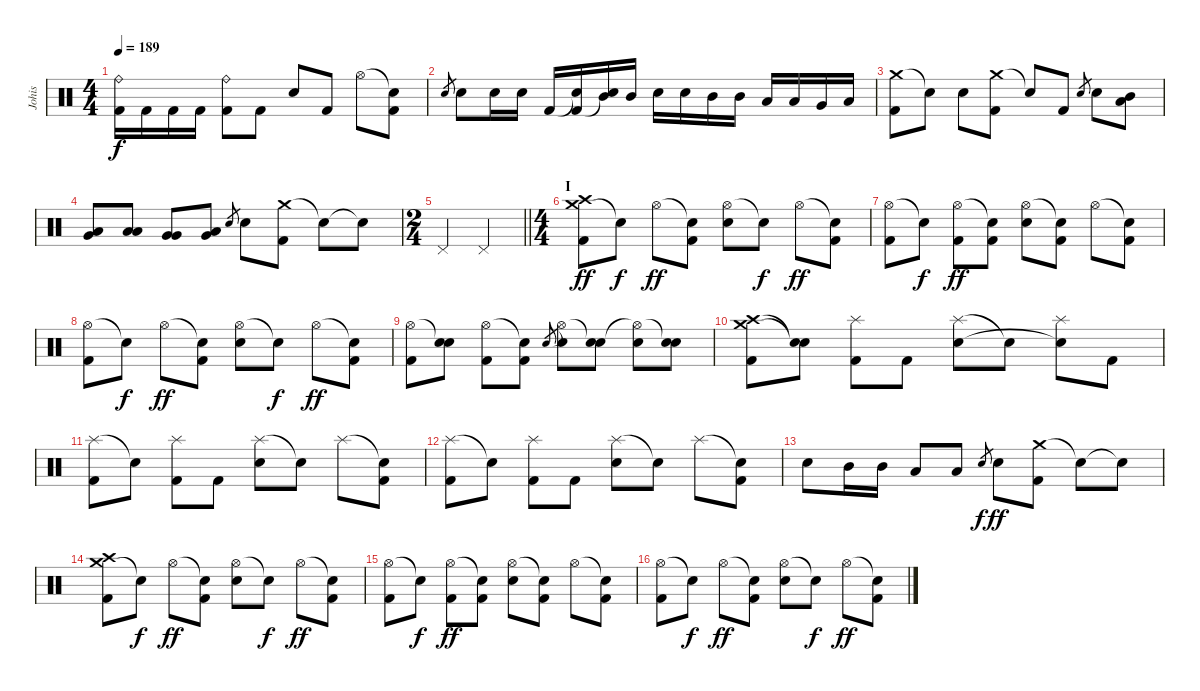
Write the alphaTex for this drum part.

\track ("Johis" "Johis") {instrument percussion}
\staff {score}
\articulation defaults
\ts (4 4)
\tempo 189
\clef neutral
\ks c
("Ride (bell)" "Kick (hit) 2").16{dy f} "Kick (hit) 2".16 "Kick (hit) 2".16 "Kick (hit) 2".16 ("Ride (bell)" "Kick (hit) 2").8 "Kick (hit) 2".8 "Electric Snare (hit)".8 "Kick (hit) 2".8 "Hi-Hat (open)".8 ("Snare (hit)"{t} "Kick (hit) 2").8 |
"Electric Snare (hit)".8{gr} "Electric Snare (hit)".8 "Electric Snare (hit)".16 "Electric Snare (hit)".16 "Kick (hit) 2".16 ("Snare (hit)"{t} "Kick (hit) 2").16 ("Mid Tom (hit)" "Snare (hit)"{t}).16 "Mid Tom (hit)".16 "Electric Snare (hit)".16 "Electric Snare (hit)".16 "Mid Tom (hit)".16 "Mid Tom (hit)".16 "Low Tom (hit)".16 "Low Tom (hit)".16 "Very Low Tom (hit)".16 "Low Floor Tom (hit)".16 |
("Crash medium (hit)" "Kick (hit) 2").8 "Snare (hit)"{t}.8 "Electric Snare (hit)".8 ("Crash medium (hit)" "Kick (hit) 2").8 "Snare (hit)"{t}.8 "Kick (hit) 2".8 "Electric Snare (hit)".8{gr} "Electric Snare (hit)".8 ("Low Tom (hit)" "Mid Tom (hit)").8 |
("Very Low Tom (hit)" "Low Tom (hit)").8 ("Low Floor Tom (hit)" "Low Tom (hit)").8 ("Very Low Tom (hit)" "Very Low Tom (hit)").8 ("Low Floor Tom (hit)" "Very Low Tom (hit)").8 "Electric Snare (hit)".8{gr} "Electric Snare (hit)".8 ("Crash medium (hit)" "Kick (hit) 2").8 "Snare (hit)"{t}.8 "Snare (hit)"{t}.8 |
\ts (2 4)
\barLineRight lightlight "Pedal Hi-Hat (hit)".4 "Pedal Hi-Hat (hit)".4
|
\ts (4 4)
\section ("" "I")
("Crash medium (hit)" "Crash high (hit)" "Kick (hit) 2").8{dy ff} "Snare (hit)"{t}.8{dy f} "Hi-Hat (open)".8{dy ff} ("Snare (hit)"{t} "Kick (hit) 2").8 ("Hi-Hat (open)" "Electric Snare (hit)").8 "Snare (hit)"{t}.8{dy f} "Hi-Hat (open)".8{dy ff} ("Snare (hit)"{t} "Kick (hit) 2").8 |
("Hi-Hat (open)" "Kick (hit) 2").8 "Snare (hit)"{t}.8{dy f} ("Hi-Hat (open)" "Kick (hit) 2").8{dy ff} ("Snare (hit)"{t} "Kick (hit) 2").8 ("Hi-Hat (open)" "Electric Snare (hit)").8 ("Snare (hit)"{t} "Kick (hit) 2").8 "Hi-Hat (open)".8 ("Snare (hit)"{t} "Kick (hit) 2").8 |
("Hi-Hat (open)" "Kick (hit) 2").8 "Snare (hit)"{t}.8{dy f} "Hi-Hat (open)".8{dy ff} ("Snare (hit)"{t} "Kick (hit) 2").8 ("Hi-Hat (open)" "Electric Snare (hit)").8 "Snare (hit)"{t}.8{dy f} "Hi-Hat (open)".8{dy ff} ("Snare (hit)"{t} "Kick (hit) 2").8 |
("Hi-Hat (open)" "Kick (hit) 2").8 ("Snare (hit)"{t} "Electric Snare (hit)").8 ("Hi-Hat (open)" "Kick (hit) 2").8 ("Snare (hit)"{t} "Kick (hit) 2").8 "Electric Snare (hit)".8{gr} ("Hi-Hat (open)"{t} "Electric Snare (hit)").8 ("Snare (hit)"{t} "Electric Snare (hit)").8 ("Hi-Hat (open)"{t} "Electric Snare (hit)").8 ("Snare (hit)"{t} "Electric Snare (hit)").8 |
("Crash high (hit)" "Crash medium (hit)" "Kick (hit) 2").8 ("Snare (hit)"{t} "Snare (hit)"{t}).8 ("Splash (hit)" "Kick (hit) 2").8 "Kick (hit) 2".8 ("Splash (hit)" "Electric Snare (hit)").8 "Snare (hit)"{t}.8 ("Splash (hit)" "Snare (hit)"{t}).8 "Kick (hit) 2".8 |
("Splash (hit)" "Kick (hit) 2").8 "Snare (hit)"{t}.8 ("Splash (hit)" "Kick (hit) 2").8 "Kick (hit) 2".8 ("Splash (hit)" "Electric Snare (hit)").8 "Snare (hit)"{t}.8 "Splash (hit)".8 ("Snare (hit)"{t} "Kick (hit) 2").8 |
("Splash (hit)" "Kick (hit) 2").8 "Snare (hit)"{t}.8 ("Splash (hit)" "Kick (hit) 2").8 "Kick (hit) 2".8 ("Splash (hit)" "Electric Snare (hit)").8 "Snare (hit)"{t}.8 "Splash (hit)".8 ("Snare (hit)"{t} "Kick (hit) 2").8 |
"Electric Snare (hit)".8 "Mid Tom (hit)".16 "Mid Tom (hit)".16 "Low Tom (hit)".8 "Low Tom (hit)".8 "Electric Snare (hit)".8{gr dy f} "Electric Snare (hit)".8{dy ff} ("Crash medium (hit)" "Kick (hit) 2").8 "Snare (hit)"{t}.8 "Snare (hit)"{t}.8 |
("Crash medium (hit)" "Crash high (hit)" "Kick (hit) 2").8 "Snare (hit)"{t}.8{dy f} "Hi-Hat (open)".8{dy ff} ("Snare (hit)"{t} "Kick (hit) 2").8 ("Hi-Hat (open)" "Electric Snare (hit)").8 "Snare (hit)"{t}.8{dy f} "Hi-Hat (open)".8{dy ff} ("Snare (hit)"{t} "Kick (hit) 2").8 |
("Hi-Hat (open)" "Kick (hit) 2").8 "Snare (hit)"{t}.8{dy f} ("Hi-Hat (open)" "Kick (hit) 2").8{dy ff} ("Snare (hit)"{t} "Kick (hit) 2").8 ("Hi-Hat (open)" "Electric Snare (hit)").8 ("Snare (hit)"{t} "Kick (hit) 2").8 "Hi-Hat (open)".8 ("Snare (hit)"{t} "Kick (hit) 2").8 |
("Hi-Hat (open)" "Kick (hit) 2").8 "Snare (hit)"{t}.8{dy f} "Hi-Hat (open)".8{dy ff} ("Snare (hit)"{t} "Kick (hit) 2").8 ("Hi-Hat (open)" "Electric Snare (hit)").8 "Snare (hit)"{t}.8{dy f} "Hi-Hat (open)".8{dy ff} ("Snare (hit)"{t} "Kick (hit) 2").8
